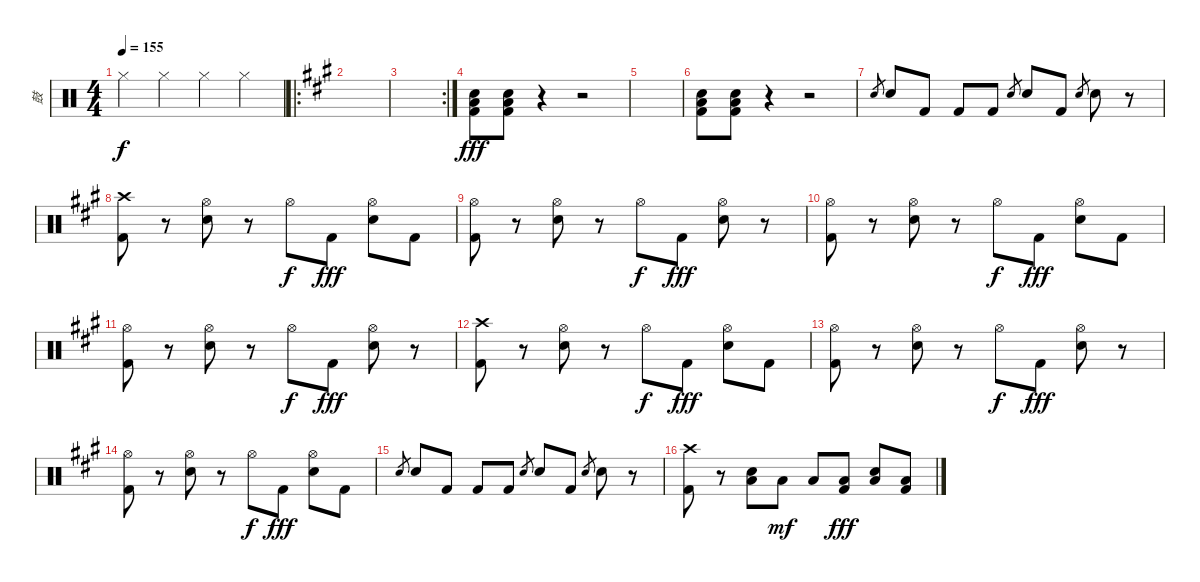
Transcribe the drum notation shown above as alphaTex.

\track ("鼓" "鼓") {instrument percussion}
\staff {score}
\articulation defaults
\ts (4 4)
\tempo 155
\clef neutral
\ks c "Hi-Hat (closed)".4{dy f} "Hi-Hat (closed)".4 "Hi-Hat (closed)".4 "Hi-Hat (closed)".4
|
\ro
\ks a
|
\rc 2
|
("Electric Snare (hit)" "Kick (hit) 2" "Low Floor Tom (hit)").8{dy fff} ("Electric Snare (hit)" "Kick (hit) 2" "Low Floor Tom (hit)").8 r.4 r.2 |
|
("Electric Snare (hit)" "Kick (hit) 2" "Low Floor Tom (hit)").8 ("Electric Snare (hit)" "Kick (hit) 2" "Low Floor Tom (hit)").8 r.4 r.2 |
"Electric Snare (hit)".8{gr} "Electric Snare (hit)".8 "Kick (hit) 2".8 "Kick (hit) 2".8 "Kick (hit) 2".8 "Electric Snare (hit)".8{gr} "Electric Snare (hit)".8 "Kick (hit) 2".8 "Electric Snare (hit)".8{gr} "Electric Snare (hit)".8 r.8 |
("Kick (hit) 2" "Crash high (hit)").8 r.8 ("Hi-Hat (open)" "Electric Snare (hit)").8 r.8 "Hi-Hat (open)".8{dy f} "Kick (hit) 2".8{dy fff} ("Hi-Hat (open)" "Electric Snare (hit)").8 "Kick (hit) 2".8 |
("Hi-Hat (open)" "Kick (hit) 2").8 r.8 ("Hi-Hat (open)" "Electric Snare (hit)").8 r.8 "Hi-Hat (open)".8{dy f} "Kick (hit) 2".8{dy fff} ("Hi-Hat (open)" "Electric Snare (hit)").8 r.8 |
("Hi-Hat (open)" "Kick (hit) 2").8 r.8 ("Hi-Hat (open)" "Electric Snare (hit)").8 r.8 "Hi-Hat (open)".8{dy f} "Kick (hit) 2".8{dy fff} ("Hi-Hat (open)" "Electric Snare (hit)").8 "Kick (hit) 2".8 |
("Hi-Hat (open)" "Kick (hit) 2").8 r.8 ("Hi-Hat (open)" "Electric Snare (hit)").8 r.8 "Hi-Hat (open)".8{dy f} "Kick (hit) 2".8{dy fff} ("Hi-Hat (open)" "Electric Snare (hit)").8 r.8 |
("Kick (hit) 2" "Crash high (hit)").8 r.8 ("Hi-Hat (open)" "Electric Snare (hit)").8 r.8 "Hi-Hat (open)".8{dy f} "Kick (hit) 2".8{dy fff} ("Hi-Hat (open)" "Electric Snare (hit)").8 "Kick (hit) 2".8 |
("Hi-Hat (open)" "Kick (hit) 2").8 r.8 ("Hi-Hat (open)" "Electric Snare (hit)").8 r.8 "Hi-Hat (open)".8{dy f} "Kick (hit) 2".8{dy fff} ("Hi-Hat (open)" "Electric Snare (hit)").8 r.8 |
("Hi-Hat (open)" "Kick (hit) 2").8 r.8 ("Hi-Hat (open)" "Electric Snare (hit)").8 r.8 "Hi-Hat (open)".8{dy f} "Kick (hit) 2".8{dy fff} ("Hi-Hat (open)" "Electric Snare (hit)").8 "Kick (hit) 2".8 |
"Electric Snare (hit)".8{gr} "Electric Snare (hit)".8 "Kick (hit) 2".8 "Kick (hit) 2".8 "Kick (hit) 2".8 "Electric Snare (hit)".8{gr} "Electric Snare (hit)".8 "Kick (hit) 2".8 "Electric Snare (hit)".8{gr} "Electric Snare (hit)".8 r.8 |
("Kick (hit) 2" "Crash high (hit)").8 r.8 ("Low Floor Tom (hit)" "Electric Snare (hit)").8 "Low Floor Tom (hit)".8{dy mf} "Low Floor Tom (hit)".8 ("Low Floor Tom (hit)" "Kick (hit) 2").8{dy fff} ("Low Floor Tom (hit)" "Electric Snare (hit)").8 ("Low Floor Tom (hit)" "Kick (hit) 2").8
